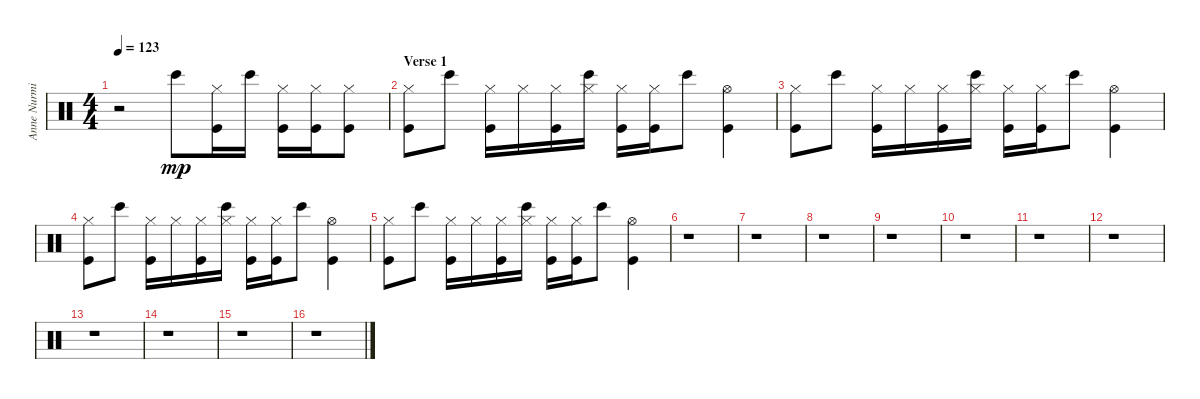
\track ("Anne Nurmi (Effects)" "Anne Nurmi") {instrument percussion}
\staff {score}
\articulation defaults
\ts (4 4)
\tempo 123
\clef neutral
\ks c
r.2{dy mp} "Bongo High (hit)".8 ("Hi-Hat (closed)" "Kick (hit)").16 "Bongo High (hit)".16 ("Hi-Hat (closed)" "Kick (hit)").16 ("Hi-Hat (closed)" "Kick (hit)").16 ("Hi-Hat (closed)" "Kick (hit)").8 |
\section ("" "Verse 1")
("Hi-Hat (closed)" "Kick (hit)").8 "Bongo High (hit)".8 ("Hi-Hat (closed)" "Kick (hit)").16 "Hi-Hat (closed)".16 ("Hi-Hat (closed)" "Kick (hit)").16 ("Bongo High (hit)" "Hi-Hat (closed)").16 ("Hi-Hat (closed)" "Kick (hit)").16 ("Hi-Hat (closed)" "Kick (hit)").16 "Bongo High (hit)".8 ("Hi-Hat (open)" "Kick (hit)").4 |
("Hi-Hat (closed)" "Kick (hit)").8 "Bongo High (hit)".8 ("Hi-Hat (closed)" "Kick (hit)").16 "Hi-Hat (closed)".16 ("Hi-Hat (closed)" "Kick (hit)").16 ("Bongo High (hit)" "Hi-Hat (closed)").16 ("Hi-Hat (closed)" "Kick (hit)").16 ("Hi-Hat (closed)" "Kick (hit)").16 "Bongo High (hit)".8 ("Hi-Hat (open)" "Kick (hit)").4 |
("Hi-Hat (closed)" "Kick (hit)").8 "Bongo High (hit)".8 ("Hi-Hat (closed)" "Kick (hit)").16 "Hi-Hat (closed)".16 ("Hi-Hat (closed)" "Kick (hit)").16 ("Bongo High (hit)" "Hi-Hat (closed)").16 ("Hi-Hat (closed)" "Kick (hit)").16 ("Hi-Hat (closed)" "Kick (hit)").16 "Bongo High (hit)".8 ("Hi-Hat (open)" "Kick (hit)").4 |
("Hi-Hat (closed)" "Kick (hit)").8 "Bongo High (hit)".8 ("Hi-Hat (closed)" "Kick (hit)").16 "Hi-Hat (closed)".16 ("Hi-Hat (closed)" "Kick (hit)").16 ("Bongo High (hit)" "Hi-Hat (closed)").16 ("Hi-Hat (closed)" "Kick (hit)").16 ("Hi-Hat (closed)" "Kick (hit)").16 "Bongo High (hit)".8 ("Hi-Hat (open)" "Kick (hit)").4 |
r.1 |
r.1 |
r.1 |
r.1 |
r.1 |
r.1 |
r.1 |
r.1 |
r.1 |
r.1 |
r.1
